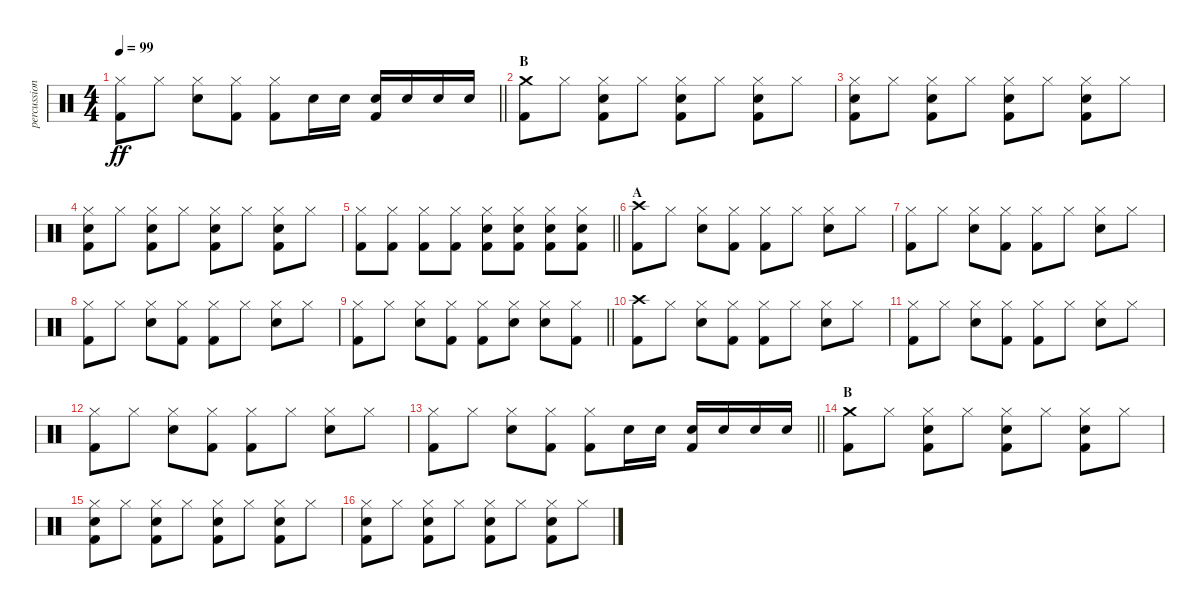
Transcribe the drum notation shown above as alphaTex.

\track ("percussion" "percussion") {instrument percussion}
\staff {score}
\articulation defaults
\ts (4 4)
\tempo 99
\clef neutral
\barLineRight lightlight
\ks c
("Hi-Hat (closed)" "Kick (hit) 2").8{dy ff} "Hi-Hat (closed)".8 ("Snare (hit) 2" "Hi-Hat (closed)").8 ("Hi-Hat (closed)" "Kick (hit) 2").8 ("Hi-Hat (closed)" "Kick (hit) 2").8 "Snare (hit) 2".16 "Snare (hit) 2".16 ("Snare (hit) 2" "Kick (hit) 2").16 "Snare (hit) 2".16 "Snare (hit) 2".16 "Snare (hit) 2".16 |
\section ("" "B")
("Crash medium (hit)" "Kick (hit) 2").8 "Hi-Hat (closed)".8 ("Snare (hit) 2" "Hi-Hat (closed)" "Kick (hit) 2").8 "Hi-Hat (closed)".8 ("Snare (hit) 2" "Hi-Hat (closed)" "Kick (hit) 2").8 "Hi-Hat (closed)".8 ("Snare (hit) 2" "Hi-Hat (closed)" "Kick (hit) 2").8 "Hi-Hat (closed)".8 |
("Snare (hit) 2" "Hi-Hat (closed)" "Kick (hit) 2").8 "Hi-Hat (closed)".8 ("Snare (hit) 2" "Hi-Hat (closed)" "Kick (hit) 2").8 "Hi-Hat (closed)".8 ("Snare (hit) 2" "Hi-Hat (closed)" "Kick (hit) 2").8 "Hi-Hat (closed)".8 ("Snare (hit) 2" "Hi-Hat (closed)" "Kick (hit) 2").8 "Hi-Hat (closed)".8 |
("Snare (hit) 2" "Hi-Hat (closed)" "Kick (hit) 2").8 "Hi-Hat (closed)".8 ("Snare (hit) 2" "Hi-Hat (closed)" "Kick (hit) 2").8 "Hi-Hat (closed)".8 ("Snare (hit) 2" "Hi-Hat (closed)" "Kick (hit) 2").8 "Hi-Hat (closed)".8 ("Snare (hit) 2" "Hi-Hat (closed)" "Kick (hit) 2").8 "Hi-Hat (closed)".8 |
\barLineRight lightlight
("Hi-Hat (closed)" "Kick (hit) 2").8 ("Hi-Hat (closed)" "Kick (hit) 2").8 ("Hi-Hat (closed)" "Kick (hit) 2").8 ("Hi-Hat (closed)" "Kick (hit) 2").8 ("Snare (hit) 2" "Hi-Hat (closed)" "Kick (hit) 2").8 ("Snare (hit) 2" "Hi-Hat (closed)" "Kick (hit) 2").8 ("Snare (hit) 2" "Hi-Hat (closed)" "Kick (hit) 2").8 ("Snare (hit) 2" "Hi-Hat (closed)" "Kick (hit) 2").8 |
\section ("" "A")
("Crash high (hit)" "Kick (hit) 2").8 "Hi-Hat (closed)".8 ("Snare (hit) 2" "Hi-Hat (closed)").8 ("Hi-Hat (closed)" "Kick (hit) 2").8 ("Hi-Hat (closed)" "Kick (hit) 2").8 "Hi-Hat (closed)".8 ("Snare (hit) 2" "Hi-Hat (closed)").8 "Hi-Hat (closed)".8 |
("Hi-Hat (closed)" "Kick (hit) 2").8 "Hi-Hat (closed)".8 ("Snare (hit) 2" "Hi-Hat (closed)").8 ("Hi-Hat (closed)" "Kick (hit) 2").8 ("Hi-Hat (closed)" "Kick (hit) 2").8 "Hi-Hat (closed)".8 ("Snare (hit) 2" "Hi-Hat (closed)").8 "Hi-Hat (closed)".8 |
("Hi-Hat (closed)" "Kick (hit) 2").8 "Hi-Hat (closed)".8 ("Snare (hit) 2" "Hi-Hat (closed)").8 ("Hi-Hat (closed)" "Kick (hit) 2").8 ("Hi-Hat (closed)" "Kick (hit) 2").8 "Hi-Hat (closed)".8 ("Snare (hit) 2" "Hi-Hat (closed)").8 "Hi-Hat (closed)".8 |
\barLineRight lightlight
("Hi-Hat (closed)" "Kick (hit) 2").8 "Hi-Hat (closed)".8 ("Snare (hit) 2" "Hi-Hat (closed)").8 ("Hi-Hat (closed)" "Kick (hit) 2").8 ("Hi-Hat (closed)" "Kick (hit) 2").8 ("Snare (hit) 2" "Hi-Hat (closed)").8 ("Snare (hit) 2" "Hi-Hat (closed)").8 ("Hi-Hat (closed)" "Kick (hit) 2").8 |
("Crash high (hit)" "Kick (hit) 2").8 "Hi-Hat (closed)".8 ("Snare (hit) 2" "Hi-Hat (closed)").8 ("Hi-Hat (closed)" "Kick (hit) 2").8 ("Hi-Hat (closed)" "Kick (hit) 2").8 "Hi-Hat (closed)".8 ("Snare (hit) 2" "Hi-Hat (closed)").8 "Hi-Hat (closed)".8 |
("Hi-Hat (closed)" "Kick (hit) 2").8 "Hi-Hat (closed)".8 ("Snare (hit) 2" "Hi-Hat (closed)").8 ("Hi-Hat (closed)" "Kick (hit) 2").8 ("Hi-Hat (closed)" "Kick (hit) 2").8 "Hi-Hat (closed)".8 ("Snare (hit) 2" "Hi-Hat (closed)").8 "Hi-Hat (closed)".8 |
("Hi-Hat (closed)" "Kick (hit) 2").8 "Hi-Hat (closed)".8 ("Snare (hit) 2" "Hi-Hat (closed)").8 ("Hi-Hat (closed)" "Kick (hit) 2").8 ("Hi-Hat (closed)" "Kick (hit) 2").8 "Hi-Hat (closed)".8 ("Snare (hit) 2" "Hi-Hat (closed)").8 "Hi-Hat (closed)".8 |
\barLineRight lightlight
("Hi-Hat (closed)" "Kick (hit) 2").8 "Hi-Hat (closed)".8 ("Snare (hit) 2" "Hi-Hat (closed)").8 ("Hi-Hat (closed)" "Kick (hit) 2").8 ("Hi-Hat (closed)" "Kick (hit) 2").8 "Snare (hit) 2".16 "Snare (hit) 2".16 ("Snare (hit) 2" "Kick (hit) 2").16 "Snare (hit) 2".16 "Snare (hit) 2".16 "Snare (hit) 2".16 |
\section ("" "B")
("Crash medium (hit)" "Kick (hit) 2").8 "Hi-Hat (closed)".8 ("Snare (hit) 2" "Hi-Hat (closed)" "Kick (hit) 2").8 "Hi-Hat (closed)".8 ("Snare (hit) 2" "Hi-Hat (closed)" "Kick (hit) 2").8 "Hi-Hat (closed)".8 ("Snare (hit) 2" "Hi-Hat (closed)" "Kick (hit) 2").8 "Hi-Hat (closed)".8 |
("Snare (hit) 2" "Hi-Hat (closed)" "Kick (hit) 2").8 "Hi-Hat (closed)".8 ("Snare (hit) 2" "Hi-Hat (closed)" "Kick (hit) 2").8 "Hi-Hat (closed)".8 ("Snare (hit) 2" "Hi-Hat (closed)" "Kick (hit) 2").8 "Hi-Hat (closed)".8 ("Snare (hit) 2" "Hi-Hat (closed)" "Kick (hit) 2").8 "Hi-Hat (closed)".8 |
("Snare (hit) 2" "Hi-Hat (closed)" "Kick (hit) 2").8 "Hi-Hat (closed)".8 ("Snare (hit) 2" "Hi-Hat (closed)" "Kick (hit) 2").8 "Hi-Hat (closed)".8 ("Snare (hit) 2" "Hi-Hat (closed)" "Kick (hit) 2").8 "Hi-Hat (closed)".8 ("Snare (hit) 2" "Hi-Hat (closed)" "Kick (hit) 2").8 "Hi-Hat (closed)".8
